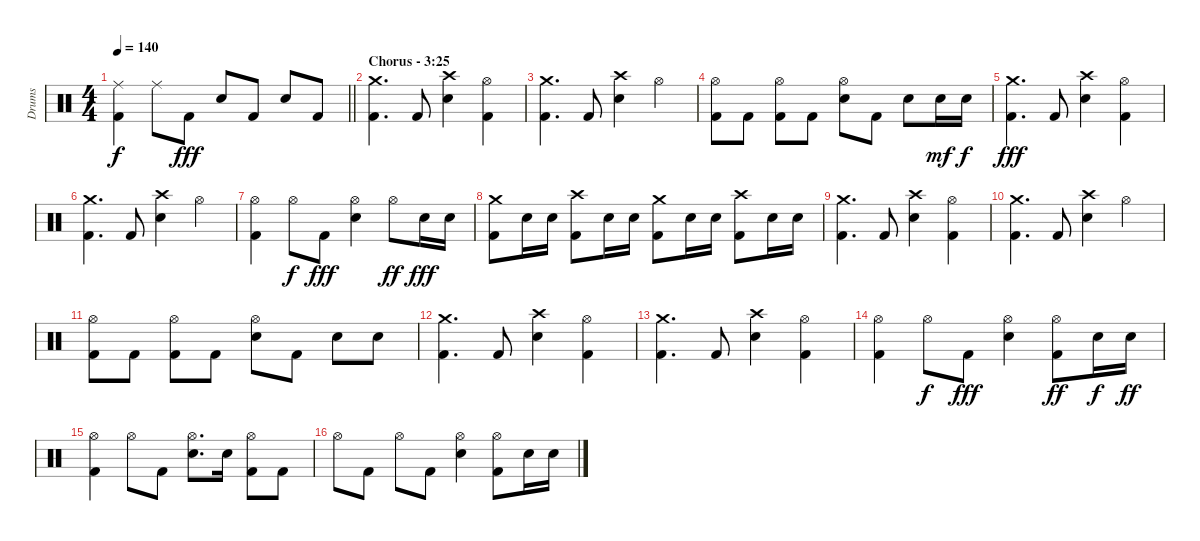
\track ("Drums" "Drums") {instrument percussion}
\staff {score}
\articulation defaults
\ts (4 4)
\tempo 140
\clef neutral
\barLineRight lightlight
\ks c
("Ride (middle)" "Kick (hit) 2").4{dy f} "Ride (middle)".8 "Kick (hit) 2".8{dy fff} "Electric Snare (hit)".8 "Kick (hit) 2".8 "Electric Snare (hit)".8 "Kick (hit) 2".8 |
\section ("" "Chorus - 3:25")
("Crash medium (hit)" "Kick (hit) 2").4{d} "Kick (hit) 2".8 ("Crash high (hit)" "Electric Snare (hit)").4 ("Hi-Hat (open)" "Kick (hit) 2").4 |
("Crash medium (hit)" "Kick (hit) 2").4{d} "Kick (hit) 2".8 ("Crash high (hit)" "Electric Snare (hit)").4 "Hi-Hat (open)".4 |
("Hi-Hat (open)" "Kick (hit) 2").8 "Kick (hit) 2".8 ("Hi-Hat (open)" "Kick (hit) 2").8 "Kick (hit) 2".8 ("Hi-Hat (open)" "Electric Snare (hit)").8 "Kick (hit) 2".8 "Electric Snare (hit)".8 "Electric Snare (hit)".16{dy mf} "Electric Snare (hit)".16{dy f} |
("Crash medium (hit)" "Kick (hit) 2").4{d dy fff} "Kick (hit) 2".8 ("Crash high (hit)" "Electric Snare (hit)").4 ("Hi-Hat (open)" "Kick (hit) 2").4 |
("Crash medium (hit)" "Kick (hit) 2").4{d} "Kick (hit) 2".8 ("Crash high (hit)" "Electric Snare (hit)").4 "Hi-Hat (open)".4 |
("Hi-Hat (open)" "Kick (hit) 2").4 "Hi-Hat (open)".8{dy f} "Kick (hit) 2".8{dy fff} ("Hi-Hat (open)" "Electric Snare (hit)").4 "Hi-Hat (open)".8{dy ff} "Electric Snare (hit)".16{dy fff} "Electric Snare (hit)".16 |
("Crash medium (hit)" "Kick (hit) 2").8 "Electric Snare (hit)".16 "Electric Snare (hit)".16 ("Crash high (hit)" "Kick (hit) 2").8 "Electric Snare (hit)".16 "Electric Snare (hit)".16 ("Crash medium (hit)" "Kick (hit) 2").8 "Electric Snare (hit)".16 "Electric Snare (hit)".16 ("Crash high (hit)" "Kick (hit) 2").8 "Electric Snare (hit)".16 "Electric Snare (hit)".16 |
("Crash medium (hit)" "Kick (hit) 2").4{d} "Kick (hit) 2".8 ("Crash high (hit)" "Electric Snare (hit)").4 ("Hi-Hat (open)" "Kick (hit) 2").4 |
("Crash medium (hit)" "Kick (hit) 2").4{d} "Kick (hit) 2".8 ("Crash high (hit)" "Electric Snare (hit)").4 "Hi-Hat (open)".4 |
("Hi-Hat (open)" "Kick (hit) 2").8 "Kick (hit) 2".8 ("Hi-Hat (open)" "Kick (hit) 2").8 "Kick (hit) 2".8 ("Hi-Hat (open)" "Electric Snare (hit)").8 "Kick (hit) 2".8 "Electric Snare (hit)".8 "Electric Snare (hit)".8 |
("Crash medium (hit)" "Kick (hit) 2").4{d} "Kick (hit) 2".8 ("Crash high (hit)" "Electric Snare (hit)").4 ("Hi-Hat (open)" "Kick (hit) 2").4 |
("Crash medium (hit)" "Kick (hit) 2").4{d} "Kick (hit) 2".8 ("Crash high (hit)" "Electric Snare (hit)").4 ("Hi-Hat (open)" "Kick (hit) 2").4 |
("Hi-Hat (open)" "Kick (hit) 2").4 "Hi-Hat (open)".8{dy f} "Kick (hit) 2".8{dy fff} ("Hi-Hat (open)" "Electric Snare (hit)").4 ("Hi-Hat (open)" "Kick (hit) 2").8{dy ff} "Electric Snare (hit)".16{dy f} "Electric Snare (hit)".16{dy ff} |
("Hi-Hat (open)" "Kick (hit) 2").4 "Hi-Hat (open)".8 "Kick (hit) 2".8 ("Hi-Hat (open)" "Electric Snare (hit)").8{d} "Electric Snare (hit)".16 ("Hi-Hat (open)" "Kick (hit) 2").8 "Kick (hit) 2".8 |
"Hi-Hat (open)".8 "Kick (hit) 2".8 "Hi-Hat (open)".8 "Kick (hit) 2".8 ("Hi-Hat (open)" "Electric Snare (hit)").4 ("Hi-Hat (open)" "Kick (hit) 2").8 "Electric Snare (hit)".16 "Electric Snare (hit)".16
